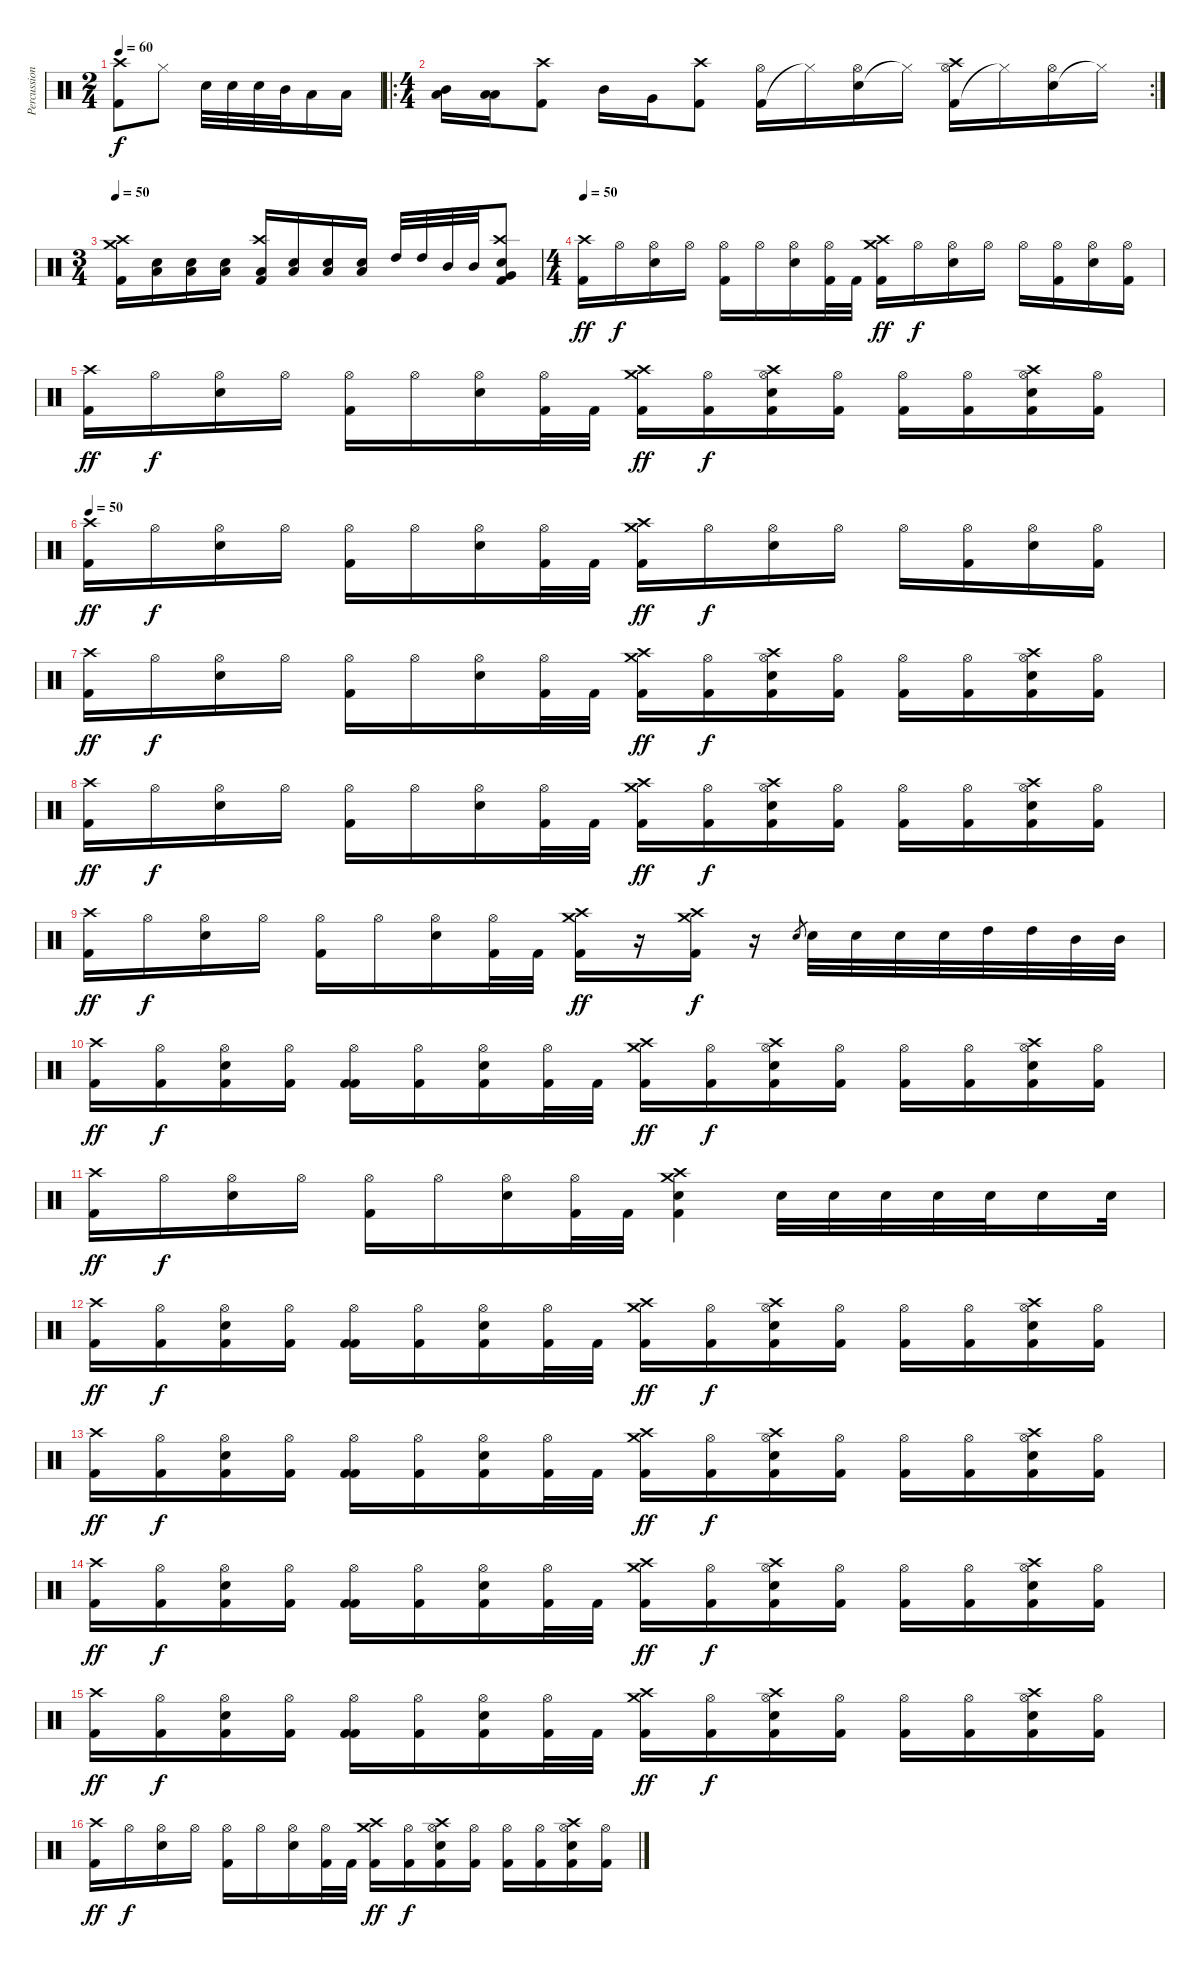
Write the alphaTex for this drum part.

\track ("Percussions" "Percussion") {instrument percussion}
\staff {score}
\articulation defaults
\ts (2 4)
\tempo 60
\clef neutral
\ks c
("Kick (hit) 2" "Crash high (hit)").8{dy f} "Hi-Hat (closed)".8 "Snare (hit) 2".32 "Snare (hit) 2".32 "Snare (hit) 2".32 "Mid Tom (hit)".32 "Low Tom (hit)".16 "Low Tom (hit)".16 |
\ro
\rc 2
\ts (4 4)
("Low Floor Tom (hit)" "Mid Tom (hit)").16 ("Low Floor Tom (hit)" "Low Tom (hit)").16 ("Kick (hit) 2" "Crash high (hit)").8 "Mid Tom (hit)".16 "Very Low Tom (hit)".16 ("Kick (hit) 2" "Crash high (hit)").8 ("Kick (hit) 2" "Hi-Hat (open)").16 "Hi-Hat (closed)"{t}.16 ("Snare (hit) 2" "Hi-Hat (open)").16 "Hi-Hat (closed)"{t}.16 ("Kick (hit) 2" "Hi-Hat (open)" "Crash high (hit)").16 "Hi-Hat (closed)"{t}.16 ("Snare (hit) 2" "Hi-Hat (open)").16 "Hi-Hat (closed)"{t}.16 |
\ts (3 4)
\tempo 50
("Crash high (hit)" "Kick (hit) 2" "Crash medium (hit)").16 ("Snare (hit) 2" "Low Floor Tom (hit)").16 ("Snare (hit) 2" "Low Floor Tom (hit)").16 ("Snare (hit) 2" "Low Floor Tom (hit)").16 ("Crash high (hit)" "Kick (hit) 2" "Low Floor Tom (hit)").16 ("Snare (hit) 2" "Low Floor Tom (hit)").16 ("Snare (hit) 2" "Low Floor Tom (hit)").16 ("Snare (hit) 2" "Low Floor Tom (hit)").16 "High Tom (hit)".32 "High Tom (hit)".32 "Mid Tom (hit)".32 "Mid Tom (hit)".32 ("Crash high (hit)" "Snare (hit) 2" "Kick (hit) 2" "Very Low Tom (hit)").8 |
\ts (4 4)
\tempo 50
("Kick (hit) 2" "Crash high (hit)").16{dy ff} "Hi-Hat (open)".16{dy f} ("Snare (hit) 2" "Hi-Hat (open)").16 "Hi-Hat (open)".16 ("Kick (hit) 2" "Hi-Hat (open)").16 "Hi-Hat (open)".16 ("Snare (hit) 2" "Hi-Hat (open)").16 ("Kick (hit) 2" "Hi-Hat (open)").32 "Kick (hit) 2".32 ("Crash medium (hit)" "Kick (hit) 2" "Crash high (hit)").16{dy ff} "Hi-Hat (open)".16{dy f} ("Snare (hit) 2" "Hi-Hat (open)").16 "Hi-Hat (open)".16 "Hi-Hat (open)".16 ("Kick (hit) 2" "Hi-Hat (open)").16 ("Snare (hit) 2" "Hi-Hat (open)").16 ("Kick (hit) 2" "Hi-Hat (open)").16 |
("Kick (hit) 2" "Crash high (hit)").16{dy ff} "Hi-Hat (open)".16{dy f} ("Snare (hit) 2" "Hi-Hat (open)").16 "Hi-Hat (open)".16 ("Kick (hit) 2" "Hi-Hat (open)").16 "Hi-Hat (open)".16 ("Snare (hit) 2" "Hi-Hat (open)").16 ("Kick (hit) 2" "Hi-Hat (open)").32 "Kick (hit) 2".32 ("Crash medium (hit)" "Kick (hit) 2" "Crash high (hit)").16{dy ff} ("Kick (hit) 2" "Hi-Hat (open)").16{dy f} ("Crash high (hit)" "Kick (hit) 2" "Snare (hit) 2" "Hi-Hat (open)").16 ("Kick (hit) 2" "Hi-Hat (open)").16 ("Kick (hit) 2" "Hi-Hat (open)").16 ("Kick (hit) 2" "Hi-Hat (open)").16 ("Crash high (hit)" "Kick (hit) 2" "Snare (hit) 2" "Hi-Hat (open)").16 ("Kick (hit) 2" "Hi-Hat (open)").16 |
\tempo 50
("Kick (hit) 2" "Crash high (hit)").16{dy ff} "Hi-Hat (open)".16{dy f} ("Snare (hit) 2" "Hi-Hat (open)").16 "Hi-Hat (open)".16 ("Kick (hit) 2" "Hi-Hat (open)").16 "Hi-Hat (open)".16 ("Snare (hit) 2" "Hi-Hat (open)").16 ("Kick (hit) 2" "Hi-Hat (open)").32 "Kick (hit) 2".32 ("Crash medium (hit)" "Kick (hit) 2" "Crash high (hit)").16{dy ff} "Hi-Hat (open)".16{dy f} ("Snare (hit) 2" "Hi-Hat (open)").16 "Hi-Hat (open)".16 "Hi-Hat (open)".16 ("Kick (hit) 2" "Hi-Hat (open)").16 ("Snare (hit) 2" "Hi-Hat (open)").16 ("Kick (hit) 2" "Hi-Hat (open)").16 |
("Kick (hit) 2" "Crash high (hit)").16{dy ff} "Hi-Hat (open)".16{dy f} ("Snare (hit) 2" "Hi-Hat (open)").16 "Hi-Hat (open)".16 ("Kick (hit) 2" "Hi-Hat (open)").16 "Hi-Hat (open)".16 ("Snare (hit) 2" "Hi-Hat (open)").16 ("Kick (hit) 2" "Hi-Hat (open)").32 "Kick (hit) 2".32 ("Crash medium (hit)" "Kick (hit) 2" "Crash high (hit)").16{dy ff} ("Kick (hit) 2" "Hi-Hat (open)").16{dy f} ("Crash high (hit)" "Kick (hit) 2" "Snare (hit) 2" "Hi-Hat (open)").16 ("Kick (hit) 2" "Hi-Hat (open)").16 ("Kick (hit) 2" "Hi-Hat (open)").16 ("Kick (hit) 2" "Hi-Hat (open)").16 ("Crash high (hit)" "Kick (hit) 2" "Snare (hit) 2" "Hi-Hat (open)").16 ("Kick (hit) 2" "Hi-Hat (open)").16 |
("Kick (hit) 2" "Crash high (hit)").16{dy ff} "Hi-Hat (open)".16{dy f} ("Snare (hit) 2" "Hi-Hat (open)").16 "Hi-Hat (open)".16 ("Kick (hit) 2" "Hi-Hat (open)").16 "Hi-Hat (open)".16 ("Snare (hit) 2" "Hi-Hat (open)").16 ("Kick (hit) 2" "Hi-Hat (open)").32 "Kick (hit) 2".32 ("Crash medium (hit)" "Kick (hit) 2" "Crash high (hit)").16{dy ff} ("Kick (hit) 2" "Hi-Hat (open)").16{dy f} ("Crash high (hit)" "Kick (hit) 2" "Snare (hit) 2" "Hi-Hat (open)").16 ("Kick (hit) 2" "Hi-Hat (open)").16 ("Kick (hit) 2" "Hi-Hat (open)").16 ("Kick (hit) 2" "Hi-Hat (open)").16 ("Crash high (hit)" "Kick (hit) 2" "Snare (hit) 2" "Hi-Hat (open)").16 ("Kick (hit) 2" "Hi-Hat (open)").16 |
("Kick (hit) 2" "Crash high (hit)").16{dy ff} "Hi-Hat (open)".16{dy f} ("Snare (hit) 2" "Hi-Hat (open)").16 "Hi-Hat (open)".16 ("Kick (hit) 2" "Hi-Hat (open)").16 "Hi-Hat (open)".16 ("Snare (hit) 2" "Hi-Hat (open)").16 ("Kick (hit) 2" "Hi-Hat (open)").32 "Kick (hit) 2".32 ("Crash medium (hit)" "Kick (hit) 2" "Crash high (hit)").16{dy ff} r.16 ("Kick (hit) 2" "Crash high (hit)" "Crash medium (hit)").16{dy f} r.16 "Snare (hit) 2".8{gr} "Snare (hit) 2".32 "Snare (hit) 2".32 "Snare (hit) 2".32 "Snare (hit) 2".32 "High Tom (hit)".32 "High Tom (hit)".32 "Mid Tom (hit)".32 "Mid Tom (hit)".32 |
("Kick (hit) 2" "Crash high (hit)").16{dy ff} ("Kick (hit) 2" "Hi-Hat (open)").16{dy f} ("Kick (hit) 2" "Snare (hit) 2" "Hi-Hat (open)").16 ("Kick (hit) 2" "Hi-Hat (open)").16 ("Kick (hit) 2" "Kick (hit) 2" "Hi-Hat (open)").16 ("Kick (hit) 2" "Hi-Hat (open)").16 ("Kick (hit) 2" "Snare (hit) 2" "Hi-Hat (open)").16 ("Kick (hit) 2" "Hi-Hat (open)").32 "Kick (hit) 2".32 ("Crash medium (hit)" "Kick (hit) 2" "Crash high (hit)").16{dy ff} ("Kick (hit) 2" "Hi-Hat (open)").16{dy f} ("Crash high (hit)" "Kick (hit) 2" "Snare (hit) 2" "Hi-Hat (open)").16 ("Kick (hit) 2" "Hi-Hat (open)").16 ("Kick (hit) 2" "Hi-Hat (open)").16 ("Kick (hit) 2" "Hi-Hat (open)").16 ("Crash high (hit)" "Kick (hit) 2" "Snare (hit) 2" "Hi-Hat (open)").16 ("Kick (hit) 2" "Hi-Hat (open)").16 |
("Kick (hit) 2" "Crash high (hit)").16{dy ff} "Hi-Hat (open)".16{dy f} ("Snare (hit) 2" "Hi-Hat (open)").16 "Hi-Hat (open)".16 ("Kick (hit) 2" "Hi-Hat (open)").16 "Hi-Hat (open)".16 ("Snare (hit) 2" "Hi-Hat (open)").16 ("Kick (hit) 2" "Hi-Hat (open)").32 "Kick (hit) 2".32 ("Snare (hit) 2" "Crash medium (hit)" "Kick (hit) 2" "Crash high (hit)").4 "Snare (hit) 2".32 "Snare (hit) 2".32 "Snare (hit) 2".32 "Snare (hit) 2".32 "Snare (hit) 2".32 "Snare (hit) 2".16 "Snare (hit) 2".32 |
("Kick (hit) 2" "Crash high (hit)").16{dy ff} ("Kick (hit) 2" "Hi-Hat (open)").16{dy f} ("Kick (hit) 2" "Snare (hit) 2" "Hi-Hat (open)").16 ("Kick (hit) 2" "Hi-Hat (open)").16 ("Kick (hit) 2" "Kick (hit) 2" "Hi-Hat (open)").16 ("Kick (hit) 2" "Hi-Hat (open)").16 ("Kick (hit) 2" "Snare (hit) 2" "Hi-Hat (open)").16 ("Kick (hit) 2" "Hi-Hat (open)").32 "Kick (hit) 2".32 ("Crash medium (hit)" "Kick (hit) 2" "Crash high (hit)").16{dy ff} ("Kick (hit) 2" "Hi-Hat (open)").16{dy f} ("Crash high (hit)" "Kick (hit) 2" "Snare (hit) 2" "Hi-Hat (open)").16 ("Kick (hit) 2" "Hi-Hat (open)").16 ("Kick (hit) 2" "Hi-Hat (open)").16 ("Kick (hit) 2" "Hi-Hat (open)").16 ("Crash high (hit)" "Kick (hit) 2" "Snare (hit) 2" "Hi-Hat (open)").16 ("Kick (hit) 2" "Hi-Hat (open)").16 |
("Kick (hit) 2" "Crash high (hit)").16{dy ff} ("Kick (hit) 2" "Hi-Hat (open)").16{dy f} ("Kick (hit) 2" "Snare (hit) 2" "Hi-Hat (open)").16 ("Kick (hit) 2" "Hi-Hat (open)").16 ("Kick (hit) 2" "Kick (hit) 2" "Hi-Hat (open)").16 ("Kick (hit) 2" "Hi-Hat (open)").16 ("Kick (hit) 2" "Snare (hit) 2" "Hi-Hat (open)").16 ("Kick (hit) 2" "Hi-Hat (open)").32 "Kick (hit) 2".32 ("Crash medium (hit)" "Kick (hit) 2" "Crash high (hit)").16{dy ff} ("Kick (hit) 2" "Hi-Hat (open)").16{dy f} ("Crash high (hit)" "Kick (hit) 2" "Snare (hit) 2" "Hi-Hat (open)").16 ("Kick (hit) 2" "Hi-Hat (open)").16 ("Kick (hit) 2" "Hi-Hat (open)").16 ("Kick (hit) 2" "Hi-Hat (open)").16 ("Crash high (hit)" "Kick (hit) 2" "Snare (hit) 2" "Hi-Hat (open)").16 ("Kick (hit) 2" "Hi-Hat (open)").16 |
("Kick (hit) 2" "Crash high (hit)").16{dy ff} ("Kick (hit) 2" "Hi-Hat (open)").16{dy f} ("Kick (hit) 2" "Snare (hit) 2" "Hi-Hat (open)").16 ("Kick (hit) 2" "Hi-Hat (open)").16 ("Kick (hit) 2" "Kick (hit) 2" "Hi-Hat (open)").16 ("Kick (hit) 2" "Hi-Hat (open)").16 ("Kick (hit) 2" "Snare (hit) 2" "Hi-Hat (open)").16 ("Kick (hit) 2" "Hi-Hat (open)").32 "Kick (hit) 2".32 ("Crash medium (hit)" "Kick (hit) 2" "Crash high (hit)").16{dy ff} ("Kick (hit) 2" "Hi-Hat (open)").16{dy f} ("Crash high (hit)" "Kick (hit) 2" "Snare (hit) 2" "Hi-Hat (open)").16 ("Kick (hit) 2" "Hi-Hat (open)").16 ("Kick (hit) 2" "Hi-Hat (open)").16 ("Kick (hit) 2" "Hi-Hat (open)").16 ("Crash high (hit)" "Kick (hit) 2" "Snare (hit) 2" "Hi-Hat (open)").16 ("Kick (hit) 2" "Hi-Hat (open)").16 |
("Kick (hit) 2" "Crash high (hit)").16{dy ff} ("Kick (hit) 2" "Hi-Hat (open)").16{dy f} ("Kick (hit) 2" "Snare (hit) 2" "Hi-Hat (open)").16 ("Kick (hit) 2" "Hi-Hat (open)").16 ("Kick (hit) 2" "Kick (hit) 2" "Hi-Hat (open)").16 ("Kick (hit) 2" "Hi-Hat (open)").16 ("Kick (hit) 2" "Snare (hit) 2" "Hi-Hat (open)").16 ("Kick (hit) 2" "Hi-Hat (open)").32 "Kick (hit) 2".32 ("Crash medium (hit)" "Kick (hit) 2" "Crash high (hit)").16{dy ff} ("Kick (hit) 2" "Hi-Hat (open)").16{dy f} ("Crash high (hit)" "Kick (hit) 2" "Snare (hit) 2" "Hi-Hat (open)").16 ("Kick (hit) 2" "Hi-Hat (open)").16 ("Kick (hit) 2" "Hi-Hat (open)").16 ("Kick (hit) 2" "Hi-Hat (open)").16 ("Crash high (hit)" "Kick (hit) 2" "Snare (hit) 2" "Hi-Hat (open)").16 ("Kick (hit) 2" "Hi-Hat (open)").16 |
("Kick (hit) 2" "Crash high (hit)").16{dy ff} "Hi-Hat (open)".16{dy f} ("Snare (hit) 2" "Hi-Hat (open)").16 "Hi-Hat (open)".16 ("Kick (hit) 2" "Hi-Hat (open)").16 "Hi-Hat (open)".16 ("Snare (hit) 2" "Hi-Hat (open)").16 ("Kick (hit) 2" "Hi-Hat (open)").32 "Kick (hit) 2".32 ("Crash medium (hit)" "Kick (hit) 2" "Crash high (hit)").16{dy ff} ("Kick (hit) 2" "Hi-Hat (open)").16{dy f} ("Crash high (hit)" "Kick (hit) 2" "Snare (hit) 2" "Hi-Hat (open)").16 ("Kick (hit) 2" "Hi-Hat (open)").16 ("Kick (hit) 2" "Hi-Hat (open)").16 ("Kick (hit) 2" "Hi-Hat (open)").16 ("Crash high (hit)" "Kick (hit) 2" "Snare (hit) 2" "Hi-Hat (open)").16 ("Kick (hit) 2" "Hi-Hat (open)").16
